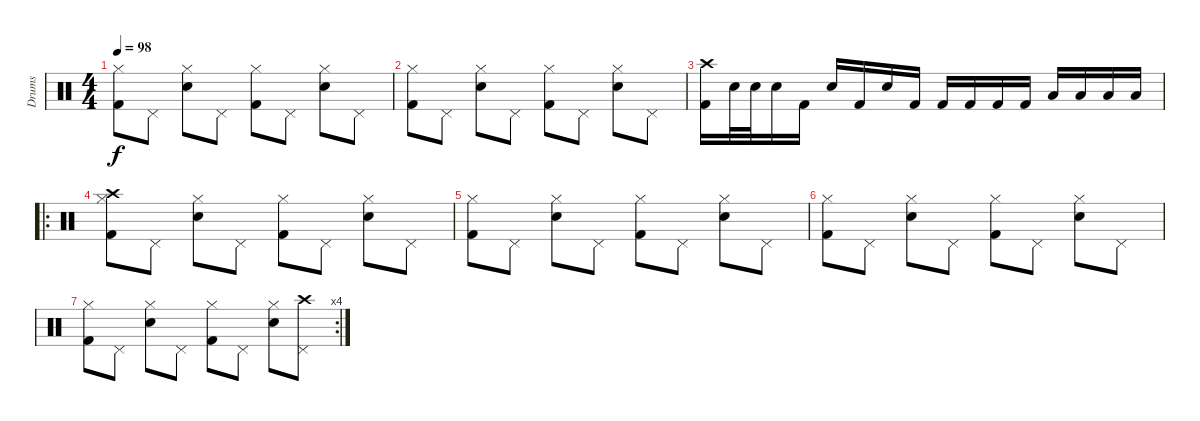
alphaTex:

\track ("Drums" "Drums") {instrument percussion}
\staff {score}
\articulation defaults
\ts (4 4)
\tempo 98
\clef neutral
\ks c
("Hi-Hat (closed)" "Kick (hit) 2").8{dy f} "Pedal Hi-Hat (hit)".8 ("Hi-Hat (closed)" "Snare (hit) 2").8 "Pedal Hi-Hat (hit)".8 ("Hi-Hat (closed)" "Kick (hit) 2").8 "Pedal Hi-Hat (hit)".8 ("Hi-Hat (closed)" "Snare (hit) 2").8 "Pedal Hi-Hat (hit)".8 |
("Hi-Hat (closed)" "Kick (hit) 2").8 "Pedal Hi-Hat (hit)".8 ("Hi-Hat (closed)" "Snare (hit) 2").8 "Pedal Hi-Hat (hit)".8 ("Hi-Hat (closed)" "Kick (hit) 2").8 "Pedal Hi-Hat (hit)".8 ("Hi-Hat (closed)" "Snare (hit) 2").8 "Pedal Hi-Hat (hit)".8 |
("Kick (hit) 2" "Crash high (hit)").16 "Snare (hit) 2".32 "Snare (hit) 2".32 "Snare (hit) 2".16 "Kick (hit) 2".16 "Snare (hit) 2".16 "Kick (hit) 2".16 "Snare (hit) 2".16 "Kick (hit) 2".16 "Kick (hit) 2".16 "Kick (hit) 2".16 "Kick (hit) 2".16 "Kick (hit) 2".16 "Low Tom (hit)".16 "Low Tom (hit)".16 "Low Tom (hit)".16 "Low Tom (hit)".16 |
\ro
("Hi-Hat (closed)" "Kick (hit) 2" "Crash high (hit)").8 "Pedal Hi-Hat (hit)".8 ("Hi-Hat (closed)" "Snare (hit) 2").8 "Pedal Hi-Hat (hit)".8 ("Hi-Hat (closed)" "Kick (hit) 2").8 "Pedal Hi-Hat (hit)".8 ("Hi-Hat (closed)" "Snare (hit) 2").8 "Pedal Hi-Hat (hit)".8 |
("Hi-Hat (closed)" "Kick (hit) 2").8 "Pedal Hi-Hat (hit)".8 ("Hi-Hat (closed)" "Snare (hit) 2").8 "Pedal Hi-Hat (hit)".8 ("Hi-Hat (closed)" "Kick (hit) 2").8 "Pedal Hi-Hat (hit)".8 ("Hi-Hat (closed)" "Snare (hit) 2").8 "Pedal Hi-Hat (hit)".8 |
("Hi-Hat (closed)" "Kick (hit) 2").8 "Pedal Hi-Hat (hit)".8 ("Hi-Hat (closed)" "Snare (hit) 2").8 "Pedal Hi-Hat (hit)".8 ("Hi-Hat (closed)" "Kick (hit) 2").8 "Pedal Hi-Hat (hit)".8 ("Hi-Hat (closed)" "Snare (hit) 2").8 "Pedal Hi-Hat (hit)".8 |
\rc 4
("Hi-Hat (closed)" "Kick (hit) 2").8 "Pedal Hi-Hat (hit)".8 ("Hi-Hat (closed)" "Snare (hit) 2").8 "Pedal Hi-Hat (hit)".8 ("Hi-Hat (closed)" "Kick (hit) 2").8 "Pedal Hi-Hat (hit)".8 ("Hi-Hat (closed)" "Snare (hit) 2").8 ("Pedal Hi-Hat (hit)" "Crash high (hit)").8
